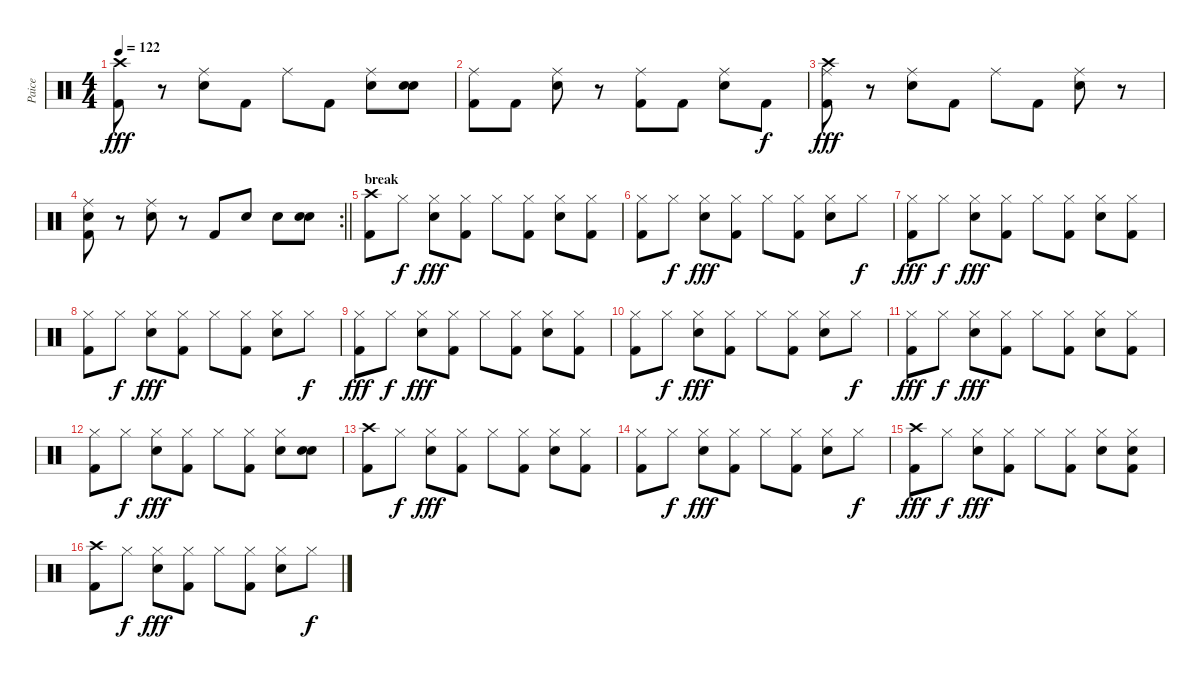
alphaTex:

\track ("Paice" "Paice") {instrument percussion}
\staff {score}
\articulation defaults
\ts (4 4)
\tempo 122
\clef neutral
\ks c
("Crash high (hit)" "Kick (hit) 2").8{dy fff} r.8 ("Electric Snare (hit)" "Ride (middle)").8 "Kick (hit) 2".8 "Ride (middle)".8 "Kick (hit) 2".8 ("Ride (middle)" "Electric Snare (hit)").8 ("Electric Snare (hit)" "Electric Snare (hit)").8 |
("Kick (hit) 2" "Ride (middle)").8 "Kick (hit) 2".8 ("Electric Snare (hit)" "Ride (middle)").8 r.8 ("Kick (hit) 2" "Ride (middle)").8 "Kick (hit) 2".8 ("Electric Snare (hit)" "Ride (middle)").8 "Kick (hit) 2".8{dy f} |
("Ride (middle)" "Crash high (hit)" "Kick (hit) 2").8{dy fff} r.8 ("Electric Snare (hit)" "Ride (middle)").8 "Kick (hit) 2".8 "Ride (middle)".8 "Kick (hit) 2".8 ("Ride (middle)" "Electric Snare (hit)").8 r.8 |
\rc 2
\barLineRight lightlight
("Electric Snare (hit)" "Kick (hit) 2" "Ride (middle)").8 r.8 ("Electric Snare (hit)" "Ride (middle)").8 r.8 "Kick (hit) 2".8 "Electric Snare (hit)".8 "Electric Snare (hit)".8 ("Electric Snare (hit)" "Electric Snare (hit)").8 |
\section ("" "break")
("Crash high (hit)" "Kick (hit) 2").8 "Hi-Hat (closed)".8{dy f} ("Electric Snare (hit)" "Hi-Hat (closed)").8{dy fff} ("Kick (hit) 2" "Hi-Hat (closed)").8 "Hi-Hat (closed)".8 ("Kick (hit) 2" "Hi-Hat (closed)").8 ("Hi-Hat (closed)" "Electric Snare (hit)").8 ("Hi-Hat (closed)" "Kick (hit) 2").8 |
("Hi-Hat (closed)" "Kick (hit) 2").8 "Hi-Hat (closed)".8{dy f} ("Hi-Hat (closed)" "Electric Snare (hit)").8{dy fff} ("Hi-Hat (closed)" "Kick (hit) 2").8 "Hi-Hat (closed)".8 ("Kick (hit) 2" "Hi-Hat (closed)").8 ("Hi-Hat (closed)" "Electric Snare (hit)").8 "Hi-Hat (closed)".8{dy f} |
("Kick (hit) 2" "Hi-Hat (closed)").8{dy fff} "Hi-Hat (closed)".8{dy f} ("Hi-Hat (closed)" "Electric Snare (hit)").8{dy fff} ("Hi-Hat (closed)" "Kick (hit) 2").8 "Hi-Hat (closed)".8 ("Hi-Hat (closed)" "Kick (hit) 2").8 ("Hi-Hat (closed)" "Electric Snare (hit)").8 ("Kick (hit) 2" "Hi-Hat (closed)").8 |
("Hi-Hat (closed)" "Kick (hit) 2").8 "Hi-Hat (closed)".8{dy f} ("Hi-Hat (closed)" "Electric Snare (hit)").8{dy fff} ("Kick (hit) 2" "Hi-Hat (closed)").8 "Hi-Hat (closed)".8 ("Hi-Hat (closed)" "Kick (hit) 2").8 ("Hi-Hat (closed)" "Electric Snare (hit)").8 "Hi-Hat (closed)".8{dy f} |
("Kick (hit) 2" "Hi-Hat (closed)").8{dy fff} "Hi-Hat (closed)".8{dy f} ("Hi-Hat (closed)" "Electric Snare (hit)").8{dy fff} ("Hi-Hat (closed)" "Kick (hit) 2").8 "Hi-Hat (closed)".8 ("Hi-Hat (closed)" "Kick (hit) 2").8 ("Electric Snare (hit)" "Hi-Hat (closed)").8 ("Hi-Hat (closed)" "Kick (hit) 2").8 |
("Hi-Hat (closed)" "Kick (hit) 2").8 "Hi-Hat (closed)".8{dy f} ("Electric Snare (hit)" "Hi-Hat (closed)").8{dy fff} ("Hi-Hat (closed)" "Kick (hit) 2").8 "Hi-Hat (closed)".8 ("Hi-Hat (closed)" "Kick (hit) 2").8 ("Hi-Hat (closed)" "Electric Snare (hit)").8 "Hi-Hat (closed)".8{dy f} |
("Kick (hit) 2" "Hi-Hat (closed)").8{dy fff} "Hi-Hat (closed)".8{dy f} ("Electric Snare (hit)" "Hi-Hat (closed)").8{dy fff} ("Hi-Hat (closed)" "Kick (hit) 2").8 "Hi-Hat (closed)".8 ("Hi-Hat (closed)" "Kick (hit) 2").8 ("Hi-Hat (closed)" "Electric Snare (hit)").8 ("Kick (hit) 2" "Hi-Hat (closed)").8 |
("Hi-Hat (closed)" "Kick (hit) 2").8 "Hi-Hat (closed)".8{dy f} ("Hi-Hat (closed)" "Electric Snare (hit)").8{dy fff} ("Kick (hit) 2" "Hi-Hat (closed)").8 "Hi-Hat (closed)".8 ("Hi-Hat (closed)" "Kick (hit) 2").8 ("Electric Snare (hit)" "Hi-Hat (closed)").8 ("Electric Snare (hit)" "Electric Snare (hit)").8 |
("Crash high (hit)" "Kick (hit) 2").8 "Hi-Hat (closed)".8{dy f} ("Electric Snare (hit)" "Hi-Hat (closed)").8{dy fff} ("Hi-Hat (closed)" "Kick (hit) 2").8 "Hi-Hat (closed)".8 ("Kick (hit) 2" "Hi-Hat (closed)").8 ("Hi-Hat (closed)" "Electric Snare (hit)").8 ("Kick (hit) 2" "Hi-Hat (closed)").8 |
("Hi-Hat (closed)" "Kick (hit) 2").8 "Hi-Hat (closed)".8{dy f} ("Electric Snare (hit)" "Hi-Hat (closed)").8{dy fff} ("Kick (hit) 2" "Hi-Hat (closed)").8 "Hi-Hat (closed)".8 ("Hi-Hat (closed)" "Kick (hit) 2").8 ("Hi-Hat (closed)" "Electric Snare (hit)").8 "Hi-Hat (closed)".8{dy f} |
("Crash high (hit)" "Kick (hit) 2").8{dy fff} "Hi-Hat (closed)".8{dy f} ("Electric Snare (hit)" "Hi-Hat (closed)").8{dy fff} ("Kick (hit) 2" "Hi-Hat (closed)").8 "Hi-Hat (closed)".8 ("Kick (hit) 2" "Hi-Hat (closed)").8 ("Electric Snare (hit)" "Hi-Hat (closed)").8 ("Hi-Hat (closed)" "Kick (hit) 2" "Electric Snare (hit)").8 |
("Crash high (hit)" "Kick (hit) 2").8 "Hi-Hat (closed)".8{dy f} ("Hi-Hat (closed)" "Electric Snare (hit)").8{dy fff} ("Hi-Hat (closed)" "Kick (hit) 2").8 "Hi-Hat (closed)".8 ("Hi-Hat (closed)" "Kick (hit) 2").8 ("Hi-Hat (closed)" "Electric Snare (hit)").8 "Hi-Hat (closed)".8{dy f}
